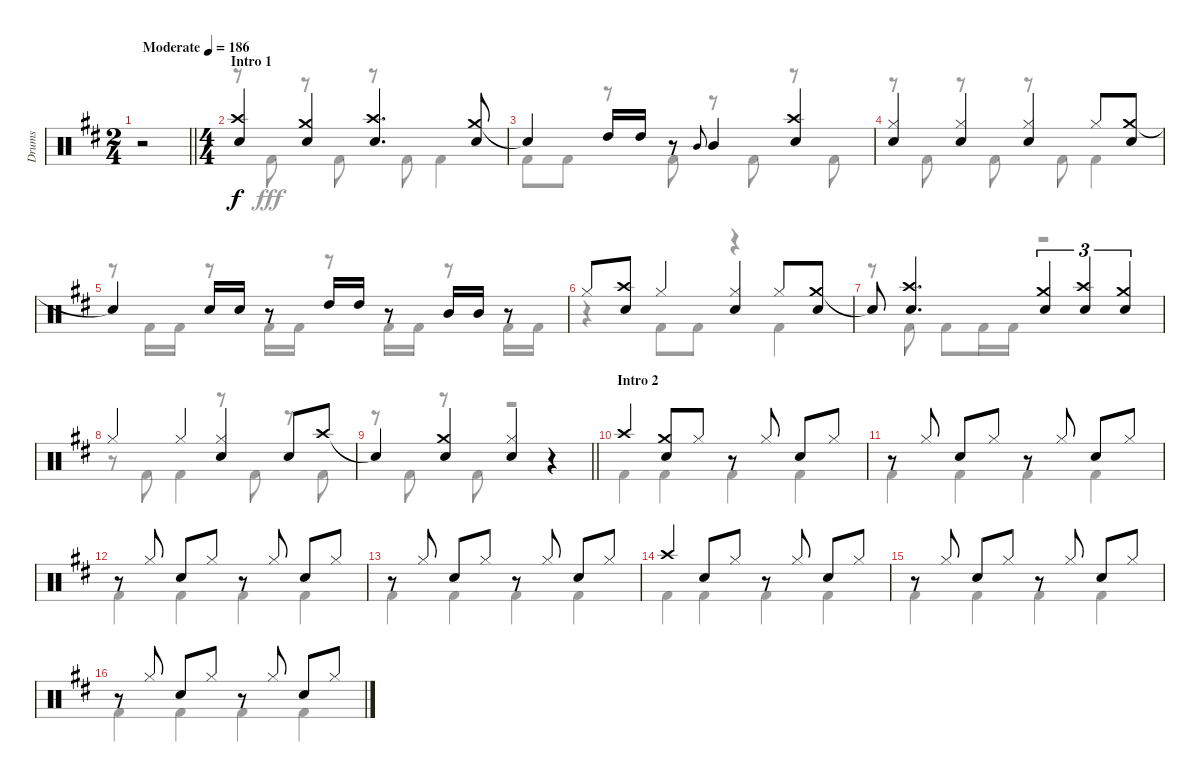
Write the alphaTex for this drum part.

\track ("Drums" "Drums") {instrument percussion}
\staff {score}
\articulation defaults
\voice
\ts (2 4)
\tempo (186 "Moderate")
\clef neutral
\barLineRight lightlight
\ks d
r.2{dy f} |
\ts (4 4)
\section ("" "Intro 1")
("Crash high (hit)" "Snare (hit) 2").4 ("Crash medium (hit)" "Snare (hit) 2").4 ("Crash high (hit)" "Snare (hit) 2").4{d} ("Crash medium (hit)" "Snare (hit) 2").8 |
"Snare (hit)"{t}.4 "High Tom (hit)".16 "High Tom (hit)".16 r.8 "Mid Tom (hit)".8{gr onbeat} "Mid Tom (hit)".4 ("Crash high (hit)" "Snare (hit) 2").4 |
("Hi-Hat (closed)" "Snare (hit) 2").4 ("Hi-Hat (closed)" "Snare (hit) 2").4 ("Hi-Hat (closed)" "Snare (hit) 2").4 "Hi-Hat (closed)".8 ("Crash medium (hit)" "Snare (hit) 2").8 |
"Snare (hit)"{t}.4 "Snare (hit) 2".16 "Snare (hit) 2".16 r.8 "High Tom (hit)".16 "High Tom (hit)".16 r.8 "Mid Tom (hit)".16 "Mid Tom (hit)".16 r.8 |
"Hi-Hat (closed)".8 ("Crash high (hit)" "Snare (hit) 2").8 "Hi-Hat (closed)".4 ("Hi-Hat (closed)" "Snare (hit) 2").4 "Hi-Hat (closed)".8 ("Crash medium (hit)" "Snare (hit) 2").8 |
"Snare (hit)"{t}.8 ("Crash high (hit)" "Snare (hit) 2").4{d} ("Crash medium (hit)" "Snare (hit) 2").4{tu (3 2)} ("Crash high (hit)" "Snare (hit) 2").4{tu (3 2)} ("Crash medium (hit)" "Snare (hit) 2").4{tu (3 2)} |
"Hi-Hat (closed)".4 "Hi-Hat (closed)".4 ("Hi-Hat (closed)" "Snare (hit) 2").4 "Snare (hit) 2".8 "Crash high (hit)".8 |
\barLineRight lightlight "Snare (hit)"{t}.4
("Crash medium (hit)" "Snare (hit) 2").4 ("Hi-Hat (closed)" "Snare (hit) 2").4 r.4 |
\section ("" "Intro 2")
"Crash high (hit)".4 ("Crash medium (hit)" "Snare (hit) 2").8 "Hi-Hat (closed)".8 r.8 "Hi-Hat (closed)".8 "Snare (hit) 2".8 "Hi-Hat (closed)".8 |
r.8 "Hi-Hat (closed)".8 "Snare (hit) 2".8 "Hi-Hat (closed)".8 r.8 "Hi-Hat (closed)".8 "Snare (hit) 2".8 "Hi-Hat (closed)".8 |
r.8 "Hi-Hat (closed)".8 "Snare (hit) 2".8 "Hi-Hat (closed)".8 r.8 "Hi-Hat (closed)".8 "Snare (hit) 2".8 "Hi-Hat (closed)".8 |
r.8 "Hi-Hat (closed)".8 "Snare (hit) 2".8 "Hi-Hat (closed)".8 r.8 "Hi-Hat (closed)".8 "Snare (hit) 2".8 "Hi-Hat (closed)".8 |
"Crash high (hit)".4 "Snare (hit) 2".8 "Hi-Hat (closed)".8 r.8 "Hi-Hat (closed)".8 "Snare (hit) 2".8 "Hi-Hat (closed)".8 |
r.8 "Hi-Hat (closed)".8 "Snare (hit) 2".8 "Hi-Hat (closed)".8 r.8 "Hi-Hat (closed)".8 "Snare (hit) 2".8 "Hi-Hat (closed)".8 |
r.8 "Hi-Hat (closed)".8 "Snare (hit) 2".8 "Hi-Hat (closed)".8 r.8 "Hi-Hat (closed)".8 "Snare (hit) 2".8 "Hi-Hat (closed)".8
\voice
\clef neutral
\ottava regular
\simile none
\barLineRight lightlight
\ks d
r.2{dy fff} |
r.8 "Kick (hit) 2".8 r.8 "Kick (hit) 2".8 r.8 "Kick (hit) 2".8 "Kick (hit) 2".4 |
"Kick (hit) 2".8 "Kick (hit) 2".8 r.8 "Kick (hit) 2".8 r.8 "Kick (hit) 2".8 r.8 "Kick (hit) 2".8 |
r.8 "Kick (hit) 2".8 r.8 "Kick (hit) 2".8 r.8 "Kick (hit) 2".8 "Kick (hit) 2".4 |
r.8 "Kick (hit) 2".16 "Kick (hit) 2".16 r.8 "Kick (hit) 2".16 "Kick (hit) 2".16 r.8 "Kick (hit) 2".16 "Kick (hit) 2".16 r.8 "Kick (hit) 2".16 "Kick (hit) 2".16 |
r.4 "Kick (hit) 2".8 "Kick (hit) 2".8 r.4 "Kick (hit) 2".4 |
r.8 "Kick (hit) 2".8 "Kick (hit) 2".8 "Kick (hit) 2".16 "Kick (hit) 2".16 r.2 |
r.8 "Kick (hit) 2".8 "Kick (hit) 2".4 r.8 "Kick (hit) 2".8 r.8 "Kick (hit) 2".8 |
\barLineRight lightlight
r.8 "Kick (hit) 2".8 r.8 "Kick (hit) 2".8 r.2 |
"Kick (hit) 2".4 "Kick (hit) 2".4 "Kick (hit) 2".4 "Kick (hit) 2".4 |
"Kick (hit) 2".4 "Kick (hit) 2".4 "Kick (hit) 2".4 "Kick (hit) 2".4 |
"Kick (hit) 2".4 "Kick (hit) 2".4 "Kick (hit) 2".4 "Kick (hit) 2".4 |
"Kick (hit) 2".4 "Kick (hit) 2".4 "Kick (hit) 2".4 "Kick (hit) 2".4 |
"Kick (hit) 2".4 "Kick (hit) 2".4 "Kick (hit) 2".4 "Kick (hit) 2".4 |
"Kick (hit) 2".4 "Kick (hit) 2".4 "Kick (hit) 2".4 "Kick (hit) 2".4 |
"Kick (hit) 2".4 "Kick (hit) 2".4 "Kick (hit) 2".4 "Kick (hit) 2".4
